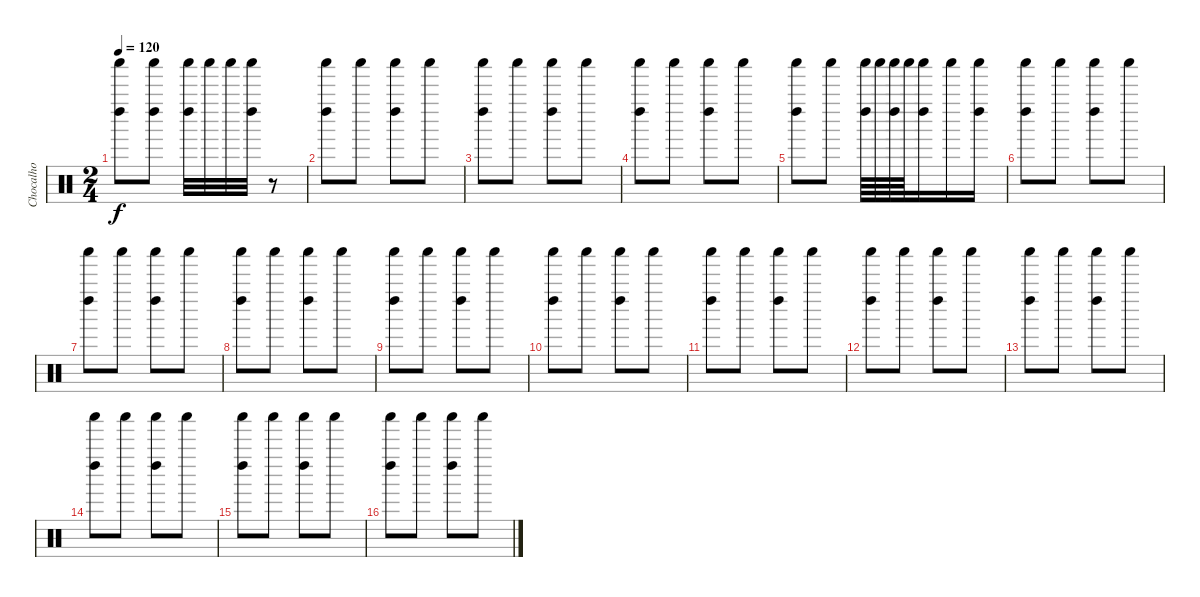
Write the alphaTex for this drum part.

\track ("Chocalho" "Chocalho") {instrument percussion}
\staff {score}
\articulation defaults
\ts (2 4)
\tempo 120
\clef neutral
\ks c
("Shaker (hit)" "Left Maraca (hit)").8{dy f} ("Shaker (hit)" "Left Maraca (hit)").8 ("Shaker (hit)" "Left Maraca (hit)").32 "Shaker (hit)".32 "Shaker (hit)".32 ("Shaker (hit)" "Left Maraca (hit)").32 r.8 |
("Shaker (hit)" "Left Maraca (hit)").8 "Shaker (hit)".8 ("Shaker (hit)" "Left Maraca (hit)").8 "Shaker (hit)".8 |
("Shaker (hit)" "Left Maraca (hit)").8 "Shaker (hit)".8 ("Shaker (hit)" "Left Maraca (hit)").8 "Shaker (hit)".8 |
("Shaker (hit)" "Left Maraca (hit)").8 "Shaker (hit)".8 ("Shaker (hit)" "Left Maraca (hit)").8 "Shaker (hit)".8 |
("Shaker (hit)" "Left Maraca (hit)").8 "Shaker (hit)".8 ("Shaker (hit)" "Left Maraca (hit)").64 "Shaker (hit)".64 ("Shaker (hit)" "Left Maraca (hit)").64 "Shaker (hit)".64 ("Shaker (hit)" "Left Maraca (hit)").16 "Shaker (hit)".16 ("Shaker (hit)" "Left Maraca (hit)").16 |
("Shaker (hit)" "Left Maraca (hit)").8 "Shaker (hit)".8 ("Shaker (hit)" "Left Maraca (hit)").8 "Shaker (hit)".8 |
("Shaker (hit)" "Left Maraca (hit)").8 "Shaker (hit)".8 ("Shaker (hit)" "Left Maraca (hit)").8 "Shaker (hit)".8 |
("Shaker (hit)" "Left Maraca (hit)").8 "Shaker (hit)".8 ("Shaker (hit)" "Left Maraca (hit)").8 "Shaker (hit)".8 |
("Shaker (hit)" "Left Maraca (hit)").8 "Shaker (hit)".8 ("Shaker (hit)" "Left Maraca (hit)").8 "Shaker (hit)".8 |
("Shaker (hit)" "Left Maraca (hit)").8 "Shaker (hit)".8 ("Shaker (hit)" "Left Maraca (hit)").8 "Shaker (hit)".8 |
("Shaker (hit)" "Left Maraca (hit)").8 "Shaker (hit)".8 ("Shaker (hit)" "Left Maraca (hit)").8 "Shaker (hit)".8 |
("Shaker (hit)" "Left Maraca (hit)").8 "Shaker (hit)".8 ("Shaker (hit)" "Left Maraca (hit)").8 "Shaker (hit)".8 |
("Shaker (hit)" "Left Maraca (hit)").8 "Shaker (hit)".8 ("Shaker (hit)" "Left Maraca (hit)").8 "Shaker (hit)".8 |
("Shaker (hit)" "Left Maraca (hit)").8 "Shaker (hit)".8 ("Shaker (hit)" "Left Maraca (hit)").8 "Shaker (hit)".8 |
("Shaker (hit)" "Left Maraca (hit)").8 "Shaker (hit)".8 ("Shaker (hit)" "Left Maraca (hit)").8 "Shaker (hit)".8 |
("Shaker (hit)" "Left Maraca (hit)").8 "Shaker (hit)".8 ("Shaker (hit)" "Left Maraca (hit)").8 "Shaker (hit)".8
